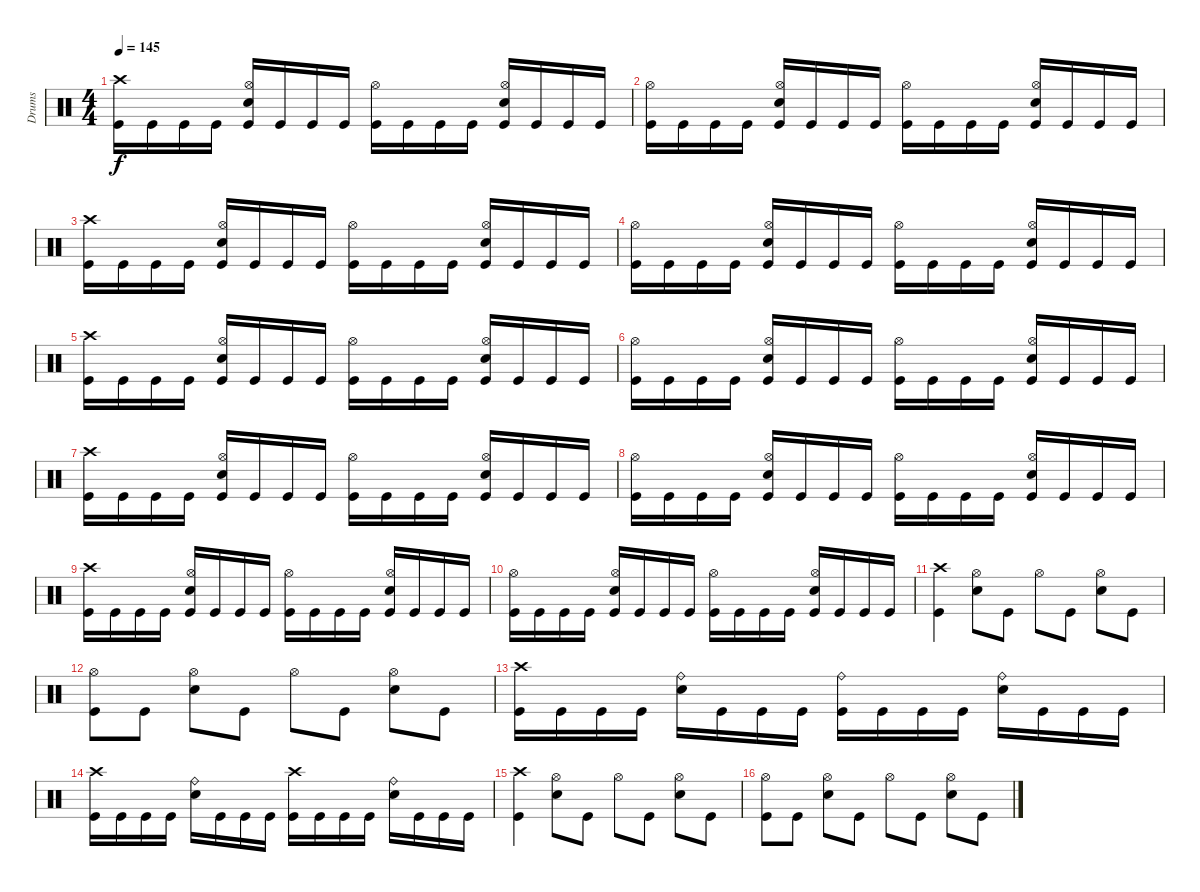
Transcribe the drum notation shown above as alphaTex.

\track ("Drums" "Drums") {instrument percussion}
\staff {score}
\articulation defaults
\ts (4 4)
\tempo 145
\clef neutral
\ks c
("Kick (hit)" "Crash high (hit)").16{dy f} "Kick (hit)".16 "Kick (hit)".16 "Kick (hit)".16 ("Kick (hit)" "Hi-Hat (open)" "Electric Snare (hit)").16 "Kick (hit)".16 "Kick (hit)".16 "Kick (hit)".16 ("Kick (hit)" "Hi-Hat (open)").16 "Kick (hit)".16 "Kick (hit)".16 "Kick (hit)".16 ("Kick (hit)" "Hi-Hat (open)" "Electric Snare (hit)").16 "Kick (hit)".16 "Kick (hit)".16 "Kick (hit)".16 |
("Kick (hit)" "Hi-Hat (open)").16 "Kick (hit)".16 "Kick (hit)".16 "Kick (hit)".16 ("Kick (hit)" "Hi-Hat (open)" "Electric Snare (hit)").16 "Kick (hit)".16 "Kick (hit)".16 "Kick (hit)".16 ("Kick (hit)" "Hi-Hat (open)").16 "Kick (hit)".16 "Kick (hit)".16 "Kick (hit)".16 ("Kick (hit)" "Hi-Hat (open)" "Electric Snare (hit)").16 "Kick (hit)".16 "Kick (hit)".16 "Kick (hit)".16 |
("Kick (hit)" "Crash high (hit)").16 "Kick (hit)".16 "Kick (hit)".16 "Kick (hit)".16 ("Kick (hit)" "Hi-Hat (open)" "Electric Snare (hit)").16 "Kick (hit)".16 "Kick (hit)".16 "Kick (hit)".16 ("Kick (hit)" "Hi-Hat (open)").16 "Kick (hit)".16 "Kick (hit)".16 "Kick (hit)".16 ("Kick (hit)" "Hi-Hat (open)" "Electric Snare (hit)").16 "Kick (hit)".16 "Kick (hit)".16 "Kick (hit)".16 |
("Kick (hit)" "Hi-Hat (open)").16 "Kick (hit)".16 "Kick (hit)".16 "Kick (hit)".16 ("Kick (hit)" "Hi-Hat (open)" "Electric Snare (hit)").16 "Kick (hit)".16 "Kick (hit)".16 "Kick (hit)".16 ("Kick (hit)" "Hi-Hat (open)").16 "Kick (hit)".16 "Kick (hit)".16 "Kick (hit)".16 ("Kick (hit)" "Hi-Hat (open)" "Electric Snare (hit)").16 "Kick (hit)".16 "Kick (hit)".16 "Kick (hit)".16 |
("Kick (hit)" "Crash high (hit)").16 "Kick (hit)".16 "Kick (hit)".16 "Kick (hit)".16 ("Kick (hit)" "Hi-Hat (open)" "Electric Snare (hit)").16 "Kick (hit)".16 "Kick (hit)".16 "Kick (hit)".16 ("Kick (hit)" "Hi-Hat (open)").16 "Kick (hit)".16 "Kick (hit)".16 "Kick (hit)".16 ("Kick (hit)" "Hi-Hat (open)" "Electric Snare (hit)").16 "Kick (hit)".16 "Kick (hit)".16 "Kick (hit)".16 |
("Kick (hit)" "Hi-Hat (open)").16 "Kick (hit)".16 "Kick (hit)".16 "Kick (hit)".16 ("Kick (hit)" "Hi-Hat (open)" "Electric Snare (hit)").16 "Kick (hit)".16 "Kick (hit)".16 "Kick (hit)".16 ("Kick (hit)" "Hi-Hat (open)").16 "Kick (hit)".16 "Kick (hit)".16 "Kick (hit)".16 ("Kick (hit)" "Hi-Hat (open)" "Electric Snare (hit)").16 "Kick (hit)".16 "Kick (hit)".16 "Kick (hit)".16 |
("Kick (hit)" "Crash high (hit)").16 "Kick (hit)".16 "Kick (hit)".16 "Kick (hit)".16 ("Kick (hit)" "Hi-Hat (open)" "Electric Snare (hit)").16 "Kick (hit)".16 "Kick (hit)".16 "Kick (hit)".16 ("Kick (hit)" "Hi-Hat (open)").16 "Kick (hit)".16 "Kick (hit)".16 "Kick (hit)".16 ("Kick (hit)" "Hi-Hat (open)" "Electric Snare (hit)").16 "Kick (hit)".16 "Kick (hit)".16 "Kick (hit)".16 |
("Kick (hit)" "Hi-Hat (open)").16 "Kick (hit)".16 "Kick (hit)".16 "Kick (hit)".16 ("Kick (hit)" "Hi-Hat (open)" "Electric Snare (hit)").16 "Kick (hit)".16 "Kick (hit)".16 "Kick (hit)".16 ("Kick (hit)" "Hi-Hat (open)").16 "Kick (hit)".16 "Kick (hit)".16 "Kick (hit)".16 ("Kick (hit)" "Hi-Hat (open)" "Electric Snare (hit)").16 "Kick (hit)".16 "Kick (hit)".16 "Kick (hit)".16 |
("Kick (hit)" "Crash high (hit)").16 "Kick (hit)".16 "Kick (hit)".16 "Kick (hit)".16 ("Kick (hit)" "Hi-Hat (open)" "Electric Snare (hit)").16 "Kick (hit)".16 "Kick (hit)".16 "Kick (hit)".16 ("Kick (hit)" "Hi-Hat (open)").16 "Kick (hit)".16 "Kick (hit)".16 "Kick (hit)".16 ("Kick (hit)" "Hi-Hat (open)" "Electric Snare (hit)").16 "Kick (hit)".16 "Kick (hit)".16 "Kick (hit)".16 |
("Kick (hit)" "Hi-Hat (open)").16 "Kick (hit)".16 "Kick (hit)".16 "Kick (hit)".16 ("Kick (hit)" "Hi-Hat (open)" "Electric Snare (hit)").16 "Kick (hit)".16 "Kick (hit)".16 "Kick (hit)".16 ("Kick (hit)" "Hi-Hat (open)").16 "Kick (hit)".16 "Kick (hit)".16 "Kick (hit)".16 ("Kick (hit)" "Hi-Hat (open)" "Electric Snare (hit)").16 "Kick (hit)".16 "Kick (hit)".16 "Kick (hit)".16 |
("Crash high (hit)" "Kick (hit)").4 ("Hi-Hat (open)" "Electric Snare (hit)").8 "Kick (hit)".8 "Hi-Hat (open)".8 "Kick (hit)".8 ("Hi-Hat (open)" "Electric Snare (hit)").8 "Kick (hit)".8 |
("Hi-Hat (open)" "Kick (hit)").8 "Kick (hit)".8 ("Hi-Hat (open)" "Electric Snare (hit)").8 "Kick (hit)".8 "Hi-Hat (open)".8 "Kick (hit)".8 ("Hi-Hat (open)" "Electric Snare (hit)").8 "Kick (hit)".8 |
("Crash high (hit)" "Kick (hit)").16 "Kick (hit)".16 "Kick (hit)".16 "Kick (hit)".16 ("Ride (bell)" "Electric Snare (hit)").16 "Kick (hit)".16 "Kick (hit)".16 "Kick (hit)".16 ("Ride (bell)" "Kick (hit)").16 "Kick (hit)".16 "Kick (hit)".16 "Kick (hit)".16 ("Ride (bell)" "Electric Snare (hit)").16 "Kick (hit)".16 "Kick (hit)".16 "Kick (hit)".16 |
("Crash high (hit)" "Kick (hit)").16 "Kick (hit)".16 "Kick (hit)".16 "Kick (hit)".16 ("Ride (bell)" "Electric Snare (hit)").16 "Kick (hit)".16 "Kick (hit)".16 "Kick (hit)".16 ("Crash high (hit)" "Kick (hit)").16 "Kick (hit)".16 "Kick (hit)".16 "Kick (hit)".16 ("Ride (bell)" "Electric Snare (hit)").16 "Kick (hit)".16 "Kick (hit)".16 "Kick (hit)".16 |
("Crash high (hit)" "Kick (hit)").4 ("Hi-Hat (open)" "Electric Snare (hit)").8 "Kick (hit)".8 "Hi-Hat (open)".8 "Kick (hit)".8 ("Hi-Hat (open)" "Electric Snare (hit)").8 "Kick (hit)".8 |
("Hi-Hat (open)" "Kick (hit)").8 "Kick (hit)".8 ("Hi-Hat (open)" "Electric Snare (hit)").8 "Kick (hit)".8 "Hi-Hat (open)".8 "Kick (hit)".8 ("Hi-Hat (open)" "Electric Snare (hit)").8 "Kick (hit)".8
